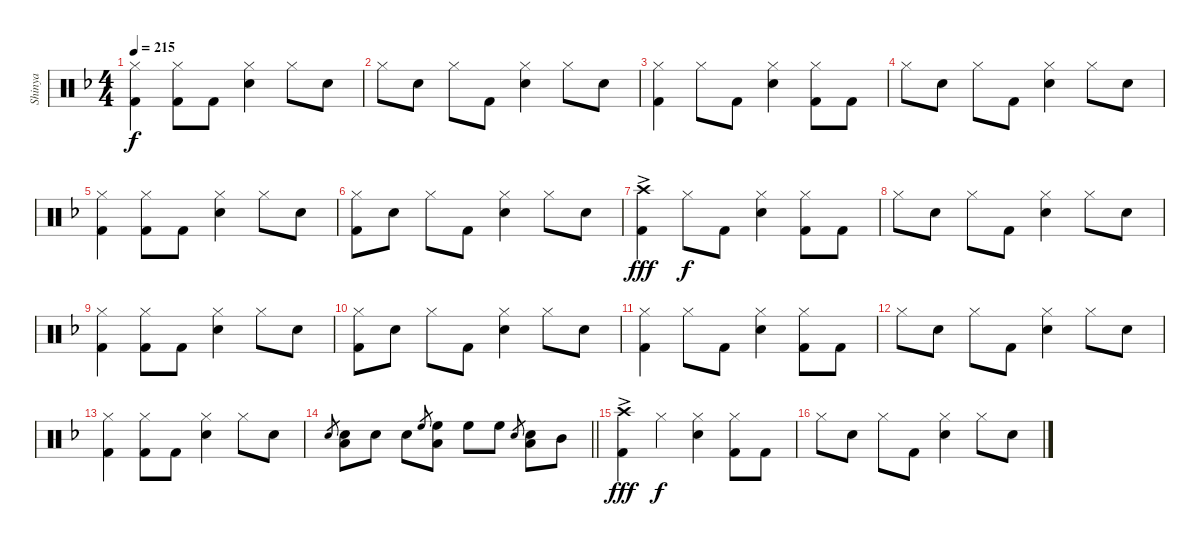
\track ("Shinya" "Shinya") {instrument percussion}
\staff {score}
\articulation defaults
\ts (4 4)
\tempo 215
\clef neutral
\ks f
("Hi-Hat (closed)" "Kick (hit) 2").4{dy f} ("Hi-Hat (closed)" "Kick (hit) 2").8 "Kick (hit) 2".8 ("Hi-Hat (closed)" "Snare (hit) 2").4 "Hi-Hat (closed)".8 "Snare (hit) 2".8 |
"Hi-Hat (closed)".8 "Snare (hit) 2".8 "Hi-Hat (closed)".8 "Kick (hit) 2".8 ("Hi-Hat (closed)" "Snare (hit) 2").4 "Hi-Hat (closed)".8 "Snare (hit) 2".8 |
("Hi-Hat (closed)" "Kick (hit) 2").4 "Hi-Hat (closed)".8 "Kick (hit) 2".8 ("Hi-Hat (closed)" "Snare (hit) 2").4 ("Hi-Hat (closed)" "Kick (hit) 2").8 "Kick (hit) 2".8 |
"Hi-Hat (closed)".8 "Snare (hit) 2".8 "Hi-Hat (closed)".8 "Kick (hit) 2".8 ("Hi-Hat (closed)" "Snare (hit) 2").4 "Hi-Hat (closed)".8 "Snare (hit) 2".8 |
("Hi-Hat (closed)" "Kick (hit) 2").4 ("Hi-Hat (closed)" "Kick (hit) 2").8 "Kick (hit) 2".8 ("Hi-Hat (closed)" "Snare (hit) 2").4 "Hi-Hat (closed)".8 "Snare (hit) 2".8 |
("Hi-Hat (closed)" "Kick (hit) 2").8 "Snare (hit) 2".8 "Hi-Hat (closed)".8 "Kick (hit) 2".8 ("Hi-Hat (closed)" "Snare (hit) 2").4 "Hi-Hat (closed)".8 "Snare (hit) 2".8 |
("Crash high (hit)"{ac} "Kick (hit) 2").4{dy fff} "Hi-Hat (closed)".8{dy f} "Kick (hit) 2".8 ("Hi-Hat (closed)" "Snare (hit) 2").4 ("Hi-Hat (closed)" "Kick (hit) 2").8 "Kick (hit) 2".8 |
"Hi-Hat (closed)".8 "Snare (hit) 2".8 "Hi-Hat (closed)".8 "Kick (hit) 2".8 ("Hi-Hat (closed)" "Snare (hit) 2").4 "Hi-Hat (closed)".8 "Snare (hit) 2".8 |
("Hi-Hat (closed)" "Kick (hit) 2").4 ("Hi-Hat (closed)" "Kick (hit) 2").8 "Kick (hit) 2".8 ("Hi-Hat (closed)" "Snare (hit) 2").4 "Hi-Hat (closed)".8 "Snare (hit) 2".8 |
("Hi-Hat (closed)" "Kick (hit) 2").8 "Snare (hit) 2".8 "Hi-Hat (closed)".8 "Kick (hit) 2".8 ("Hi-Hat (closed)" "Snare (hit) 2").4 "Hi-Hat (closed)".8 "Snare (hit) 2".8 |
("Hi-Hat (closed)" "Kick (hit) 2").4 "Hi-Hat (closed)".8 "Kick (hit) 2".8 ("Hi-Hat (closed)" "Snare (hit) 2").4 ("Hi-Hat (closed)" "Kick (hit) 2").8 "Kick (hit) 2".8 |
"Hi-Hat (closed)".8 "Snare (hit) 2".8 "Hi-Hat (closed)".8 "Kick (hit) 2".8 ("Hi-Hat (closed)" "Snare (hit) 2").4 "Hi-Hat (closed)".8 "Snare (hit) 2".8 |
("Hi-Hat (closed)" "Kick (hit) 2").4 ("Hi-Hat (closed)" "Kick (hit) 2").8 "Kick (hit) 2".8 ("Hi-Hat (closed)" "Snare (hit) 2").4 "Hi-Hat (closed)".8 "Snare (hit) 2".8 |
\barLineRight lightlight "Snare (hit) 2".8{gr}
("Snare (hit) 2" "Low Floor Tom (hit)").8 "Snare (hit) 2".8 "Snare (hit) 2".8 "High Floor Tom (hit)".8{gr} ("High Floor Tom (hit)" "Low Floor Tom (hit)").8 "High Floor Tom (hit)".8 "High Floor Tom (hit)".8 "Snare (hit) 2".8{gr} ("Snare (hit) 2" "Low Floor Tom (hit)").8 "Mid Tom (hit)".8 |
("Crash high (hit)"{ac} "Kick (hit) 2").4{dy fff} "Hi-Hat (closed)".4{dy f} ("Hi-Hat (closed)" "Snare (hit) 2").4 ("Hi-Hat (closed)" "Kick (hit) 2").8 "Kick (hit) 2".8 |
"Hi-Hat (closed)".8 "Snare (hit) 2".8 "Hi-Hat (closed)".8 "Kick (hit) 2".8 ("Hi-Hat (closed)" "Snare (hit) 2").4 "Hi-Hat (closed)".8 "Snare (hit) 2".8
